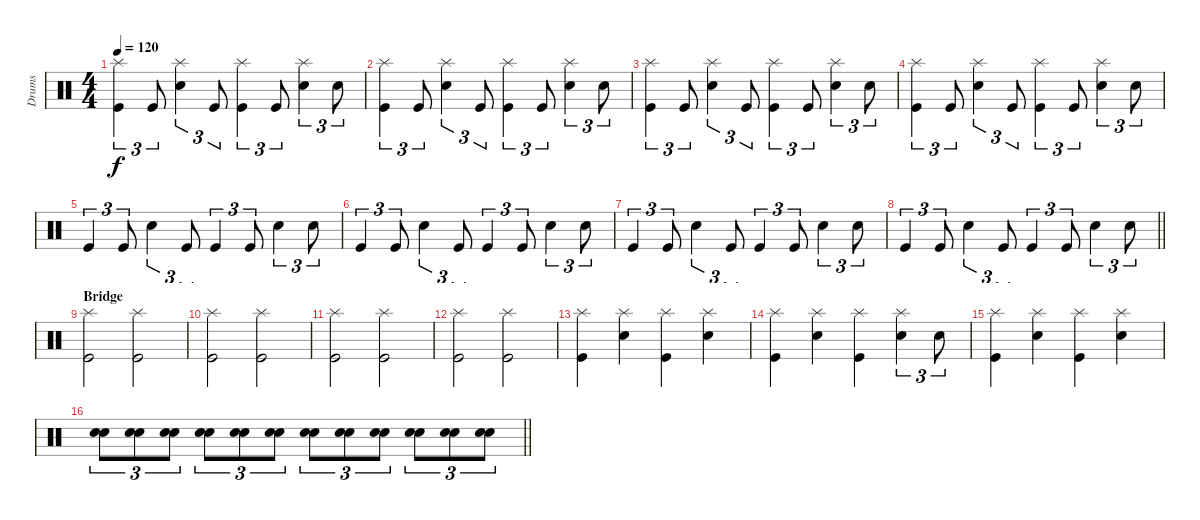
\track ("Drums" "Drums") {instrument percussion}
\staff {score}
\articulation defaults
\ts (4 4)
\tempo 120
\clef neutral
\ks c
("Splash (hit)" "Kick (hit)").4{tu (3 2) dy f} "Kick (hit)".8{tu (3 2)} ("Splash (hit)" "Electric Snare (hit)").4{tu (3 2)} "Kick (hit)".8{tu (3 2)} ("Splash (hit)" "Kick (hit)").4{tu (3 2)} "Kick (hit)".8{tu (3 2)} ("Splash (hit)" "Electric Snare (hit)").4{tu (3 2)} "Electric Snare (hit)".8{tu (3 2)} |
("Splash (hit)" "Kick (hit)").4{tu (3 2)} "Kick (hit)".8{tu (3 2)} ("Splash (hit)" "Electric Snare (hit)").4{tu (3 2)} "Kick (hit)".8{tu (3 2)} ("Splash (hit)" "Kick (hit)").4{tu (3 2)} "Kick (hit)".8{tu (3 2)} ("Splash (hit)" "Electric Snare (hit)").4{tu (3 2)} "Electric Snare (hit)".8{tu (3 2)} |
("Splash (hit)" "Kick (hit)").4{tu (3 2)} "Kick (hit)".8{tu (3 2)} ("Splash (hit)" "Electric Snare (hit)").4{tu (3 2)} "Kick (hit)".8{tu (3 2)} ("Splash (hit)" "Kick (hit)").4{tu (3 2)} "Kick (hit)".8{tu (3 2)} ("Splash (hit)" "Electric Snare (hit)").4{tu (3 2)} "Electric Snare (hit)".8{tu (3 2)} |
("Splash (hit)" "Kick (hit)").4{tu (3 2)} "Kick (hit)".8{tu (3 2)} ("Splash (hit)" "Electric Snare (hit)").4{tu (3 2)} "Kick (hit)".8{tu (3 2)} ("Splash (hit)" "Kick (hit)").4{tu (3 2)} "Kick (hit)".8{tu (3 2)} ("Splash (hit)" "Electric Snare (hit)").4{tu (3 2)} "Electric Snare (hit)".8{tu (3 2)} |
"Kick (hit)".4{tu (3 2)} "Kick (hit)".8{tu (3 2)} "Electric Snare (hit)".4{tu (3 2)} "Kick (hit)".8{tu (3 2)} "Kick (hit)".4{tu (3 2)} "Kick (hit)".8{tu (3 2)} "Electric Snare (hit)".4{tu (3 2)} "Electric Snare (hit)".8{tu (3 2)} |
"Kick (hit)".4{tu (3 2)} "Kick (hit)".8{tu (3 2)} "Electric Snare (hit)".4{tu (3 2)} "Kick (hit)".8{tu (3 2)} "Kick (hit)".4{tu (3 2)} "Kick (hit)".8{tu (3 2)} "Electric Snare (hit)".4{tu (3 2)} "Electric Snare (hit)".8{tu (3 2)} |
"Kick (hit)".4{tu (3 2)} "Kick (hit)".8{tu (3 2)} "Electric Snare (hit)".4{tu (3 2)} "Kick (hit)".8{tu (3 2)} "Kick (hit)".4{tu (3 2)} "Kick (hit)".8{tu (3 2)} "Electric Snare (hit)".4{tu (3 2)} "Electric Snare (hit)".8{tu (3 2)} |
\barLineRight lightlight "Kick (hit)".4{tu (3 2)} "Kick (hit)".8{tu (3 2)} "Electric Snare (hit)".4{tu (3 2)} "Kick (hit)".8{tu (3 2)} "Kick (hit)".4{tu (3 2)} "Kick (hit)".8{tu (3 2)} "Electric Snare (hit)".4{tu (3 2)} "Electric Snare (hit)".8{tu (3 2)}
|
\section ("" "Bridge")
("Splash (hit)" "Kick (hit)").2 ("Splash (hit)" "Kick (hit)").2 |
("Splash (hit)" "Kick (hit)").2 ("Splash (hit)" "Kick (hit)").2 |
("Splash (hit)" "Kick (hit)").2 ("Splash (hit)" "Kick (hit)").2 |
("Splash (hit)" "Kick (hit)").2 ("Splash (hit)" "Kick (hit)").2 |
("Splash (hit)" "Kick (hit)").4 ("Splash (hit)" "Electric Snare (hit)").4 ("Splash (hit)" "Kick (hit)").4 ("Splash (hit)" "Electric Snare (hit)").4 |
("Splash (hit)" "Kick (hit)").4 ("Splash (hit)" "Electric Snare (hit)").4 ("Splash (hit)" "Kick (hit)").4 ("Splash (hit)" "Electric Snare (hit)").4{tu (3 2)} "Electric Snare (hit)".8{tu (3 2)} |
("Splash (hit)" "Kick (hit)").4 ("Splash (hit)" "Electric Snare (hit)").4 ("Splash (hit)" "Kick (hit)").4 ("Splash (hit)" "Electric Snare (hit)").4 |
\barLineRight lightlight
("Snare (hit) 2" "Electric Snare (hit)").8{tu (3 2)} ("Snare (hit) 2" "Electric Snare (hit)").8{tu (3 2)} ("Snare (hit) 2" "Electric Snare (hit)").8{tu (3 2)} ("Snare (hit) 2" "Electric Snare (hit)").8{tu (3 2)} ("Snare (hit) 2" "Electric Snare (hit)").8{tu (3 2)} ("Snare (hit) 2" "Electric Snare (hit)").8{tu (3 2)} ("Snare (hit) 2" "Electric Snare (hit)").8{tu (3 2)} ("Snare (hit) 2" "Electric Snare (hit)").8{tu (3 2)} ("Snare (hit) 2" "Electric Snare (hit)").8{tu (3 2)} ("Snare (hit) 2" "Electric Snare (hit)").8{tu (3 2)} ("Snare (hit) 2" "Electric Snare (hit)").8{tu (3 2)} ("Snare (hit) 2" "Electric Snare (hit)").8{tu (3 2)}
